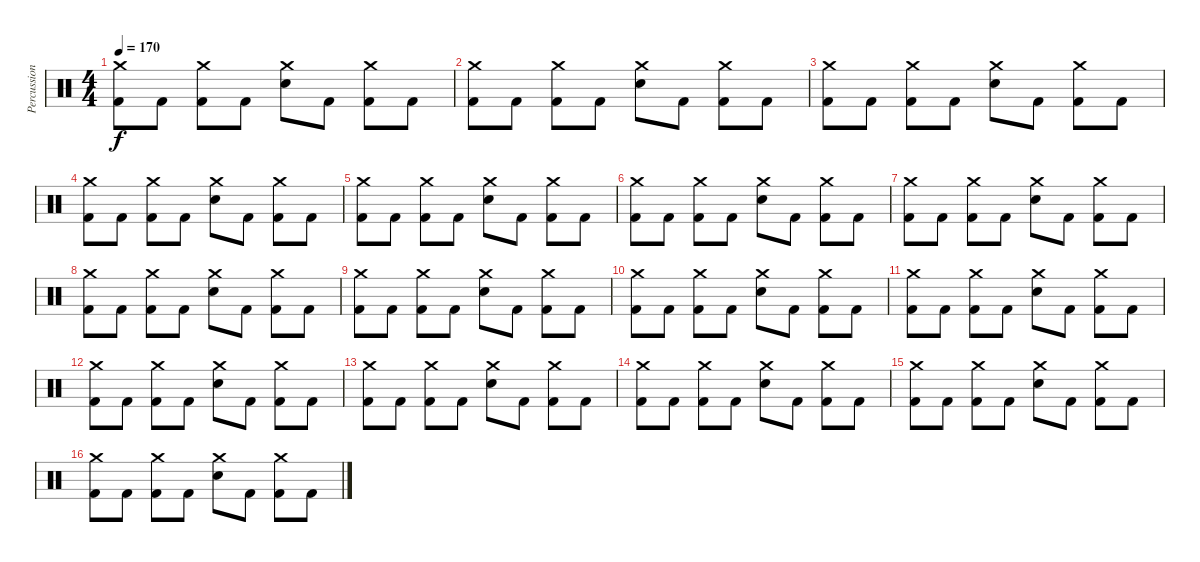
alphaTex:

\track ("Percussion" "Percussion") {instrument percussion}
\staff {score}
\articulation defaults
\ts (4 4)
\tempo 170
\clef neutral
\ks c
("Crash medium (hit)" "Kick (hit) 2").8{dy f} "Kick (hit) 2".8 ("Crash medium (hit)" "Kick (hit) 2").8 "Kick (hit) 2".8 ("Crash medium (hit)" "Electric Snare (hit)").8 "Kick (hit) 2".8 ("Crash medium (hit)" "Kick (hit) 2").8 "Kick (hit) 2".8 |
("Crash medium (hit)" "Kick (hit) 2").8 "Kick (hit) 2".8 ("Crash medium (hit)" "Kick (hit) 2").8 "Kick (hit) 2".8 ("Crash medium (hit)" "Electric Snare (hit)").8 "Kick (hit) 2".8 ("Crash medium (hit)" "Kick (hit) 2").8 "Kick (hit) 2".8 |
("Crash medium (hit)" "Kick (hit) 2").8 "Kick (hit) 2".8 ("Crash medium (hit)" "Kick (hit) 2").8 "Kick (hit) 2".8 ("Crash medium (hit)" "Electric Snare (hit)").8 "Kick (hit) 2".8 ("Crash medium (hit)" "Kick (hit) 2").8 "Kick (hit) 2".8 |
("Crash medium (hit)" "Kick (hit) 2").8 "Kick (hit) 2".8 ("Crash medium (hit)" "Kick (hit) 2").8 "Kick (hit) 2".8 ("Crash medium (hit)" "Electric Snare (hit)").8 "Kick (hit) 2".8 ("Crash medium (hit)" "Kick (hit) 2").8 "Kick (hit) 2".8 |
("Crash medium (hit)" "Kick (hit) 2").8 "Kick (hit) 2".8 ("Crash medium (hit)" "Kick (hit) 2").8 "Kick (hit) 2".8 ("Crash medium (hit)" "Electric Snare (hit)").8 "Kick (hit) 2".8 ("Crash medium (hit)" "Kick (hit) 2").8 "Kick (hit) 2".8 |
("Crash medium (hit)" "Kick (hit) 2").8 "Kick (hit) 2".8 ("Crash medium (hit)" "Kick (hit) 2").8 "Kick (hit) 2".8 ("Crash medium (hit)" "Electric Snare (hit)").8 "Kick (hit) 2".8 ("Crash medium (hit)" "Kick (hit) 2").8 "Kick (hit) 2".8 |
("Crash medium (hit)" "Kick (hit) 2").8 "Kick (hit) 2".8 ("Crash medium (hit)" "Kick (hit) 2").8 "Kick (hit) 2".8 ("Crash medium (hit)" "Electric Snare (hit)").8 "Kick (hit) 2".8 ("Crash medium (hit)" "Kick (hit) 2").8 "Kick (hit) 2".8 |
("Crash medium (hit)" "Kick (hit) 2").8 "Kick (hit) 2".8 ("Crash medium (hit)" "Kick (hit) 2").8 "Kick (hit) 2".8 ("Crash medium (hit)" "Electric Snare (hit)").8 "Kick (hit) 2".8 ("Crash medium (hit)" "Kick (hit) 2").8 "Kick (hit) 2".8 |
("Crash medium (hit)" "Kick (hit) 2").8 "Kick (hit) 2".8 ("Crash medium (hit)" "Kick (hit) 2").8 "Kick (hit) 2".8 ("Crash medium (hit)" "Electric Snare (hit)").8 "Kick (hit) 2".8 ("Crash medium (hit)" "Kick (hit) 2").8 "Kick (hit) 2".8 |
("Crash medium (hit)" "Kick (hit) 2").8 "Kick (hit) 2".8 ("Crash medium (hit)" "Kick (hit) 2").8 "Kick (hit) 2".8 ("Crash medium (hit)" "Electric Snare (hit)").8 "Kick (hit) 2".8 ("Crash medium (hit)" "Kick (hit) 2").8 "Kick (hit) 2".8 |
("Crash medium (hit)" "Kick (hit) 2").8 "Kick (hit) 2".8 ("Crash medium (hit)" "Kick (hit) 2").8 "Kick (hit) 2".8 ("Crash medium (hit)" "Electric Snare (hit)").8 "Kick (hit) 2".8 ("Crash medium (hit)" "Kick (hit) 2").8 "Kick (hit) 2".8 |
("Crash medium (hit)" "Kick (hit) 2").8 "Kick (hit) 2".8 ("Crash medium (hit)" "Kick (hit) 2").8 "Kick (hit) 2".8 ("Crash medium (hit)" "Electric Snare (hit)").8 "Kick (hit) 2".8 ("Crash medium (hit)" "Kick (hit) 2").8 "Kick (hit) 2".8 |
("Crash medium (hit)" "Kick (hit) 2").8 "Kick (hit) 2".8 ("Crash medium (hit)" "Kick (hit) 2").8 "Kick (hit) 2".8 ("Crash medium (hit)" "Electric Snare (hit)").8 "Kick (hit) 2".8 ("Crash medium (hit)" "Kick (hit) 2").8 "Kick (hit) 2".8 |
("Crash medium (hit)" "Kick (hit) 2").8 "Kick (hit) 2".8 ("Crash medium (hit)" "Kick (hit) 2").8 "Kick (hit) 2".8 ("Crash medium (hit)" "Electric Snare (hit)").8 "Kick (hit) 2".8 ("Crash medium (hit)" "Kick (hit) 2").8 "Kick (hit) 2".8 |
("Crash medium (hit)" "Kick (hit) 2").8 "Kick (hit) 2".8 ("Crash medium (hit)" "Kick (hit) 2").8 "Kick (hit) 2".8 ("Crash medium (hit)" "Electric Snare (hit)").8 "Kick (hit) 2".8 ("Crash medium (hit)" "Kick (hit) 2").8 "Kick (hit) 2".8 |
("Crash medium (hit)" "Kick (hit) 2").8 "Kick (hit) 2".8 ("Crash medium (hit)" "Kick (hit) 2").8 "Kick (hit) 2".8 ("Crash medium (hit)" "Electric Snare (hit)").8 "Kick (hit) 2".8 ("Crash medium (hit)" "Kick (hit) 2").8 "Kick (hit) 2".8
